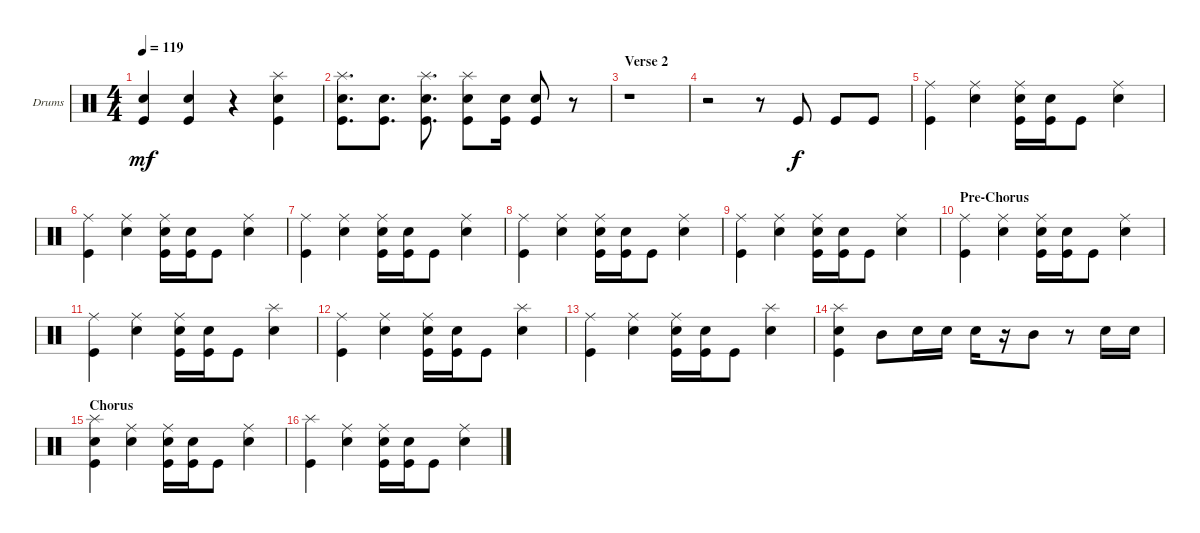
\defaultSystemsLayout 4
\bracketExtendMode groupsimilarinstruments
\firstSystemTrackNameOrientation horizontal
\otherSystemsTrackNameOrientation horizontal
\track ("Drumkit" "Drums") {instrument percussion}
\staff {score}
\articulation defaults
\ts (4 4)
\tempo 119
\clef neutral
\ks c
("Kick (hit)" "Snare (hit) 2").4{dy mf} ("Kick (hit)" "Snare (hit) 2").4 r.4 ("Kick (hit)" "Snare (hit) 2" "Splash (hit)").4 |
("Kick (hit)" "Splash (hit)" "Snare (hit) 2").8{d} ("Kick (hit)" "Snare (hit) 2").8{d} ("Kick (hit)" "Splash (hit)" "Snare (hit) 2").8{d} ("Kick (hit)" "Splash (hit)" "Snare (hit) 2").8 ("Kick (hit)" "Snare (hit) 2").16 ("Kick (hit)" "Snare (hit) 2").8 r.8 |
\section ("" "Verse 2")
r.1 |
r.2 r.8 "Kick (hit)".8{dy f} "Kick (hit)".8 "Kick (hit)".8 |
("Kick (hit)" "Ride (middle)").4 ("Snare (hit) 2" "Ride (middle)").4 ("Kick (hit)" "Snare (hit) 2" "Ride (middle)").16 ("Kick (hit)" "Snare (hit) 2").16 "Kick (hit)".8 ("Snare (hit) 2" "Ride (middle)").4 |
("Kick (hit)" "Ride (middle)").4 ("Snare (hit) 2" "Ride (middle)").4 ("Kick (hit)" "Snare (hit) 2" "Ride (middle)").16 ("Kick (hit)" "Snare (hit) 2").16 "Kick (hit)".8 ("Snare (hit) 2" "Ride (middle)").4 |
("Kick (hit)" "Ride (middle)").4 ("Snare (hit) 2" "Ride (middle)").4 ("Kick (hit)" "Snare (hit) 2" "Ride (middle)").16 ("Kick (hit)" "Snare (hit) 2").16 "Kick (hit)".8 ("Snare (hit) 2" "Ride (middle)").4 |
("Kick (hit)" "Ride (middle)").4 ("Snare (hit) 2" "Ride (middle)").4 ("Kick (hit)" "Snare (hit) 2" "Ride (middle)").16 ("Kick (hit)" "Snare (hit) 2").16 "Kick (hit)".8 ("Snare (hit) 2" "Ride (middle)").4 |
("Kick (hit)" "Ride (middle)").4 ("Snare (hit) 2" "Ride (middle)").4 ("Kick (hit)" "Snare (hit) 2" "Ride (middle)").16 ("Kick (hit)" "Snare (hit) 2").16 "Kick (hit)".8 ("Snare (hit) 2" "Ride (middle)").4 |
\section ("" "Pre-Chorus")
("Kick (hit)" "Ride (middle)").4 ("Snare (hit) 2" "Ride (middle)").4 ("Kick (hit)" "Snare (hit) 2" "Ride (middle)").16 ("Kick (hit)" "Snare (hit) 2").16 "Kick (hit)".8 ("Snare (hit) 2" "Ride (middle)").4 |
("Kick (hit)" "Ride (middle)").4 ("Snare (hit) 2" "Ride (middle)").4 ("Kick (hit)" "Snare (hit) 2" "Ride (middle)").16 ("Kick (hit)" "Snare (hit) 2").16 "Kick (hit)".8 ("Snare (hit) 2" "Splash (hit)").4 |
("Kick (hit)" "Ride (middle)").4 ("Snare (hit) 2" "Ride (middle)").4 ("Kick (hit)" "Snare (hit) 2" "Ride (middle)").16 ("Kick (hit)" "Snare (hit) 2").16 "Kick (hit)".8 ("Snare (hit) 2" "Splash (hit)").4 |
("Kick (hit)" "Ride (middle)").4 ("Snare (hit) 2" "Ride (middle)").4 ("Kick (hit)" "Snare (hit) 2" "Ride (middle)").16 ("Kick (hit)" "Snare (hit) 2").16 "Kick (hit)".8 ("Snare (hit) 2" "Splash (hit)").4 |
("Kick (hit)" "Snare (hit) 2" "Splash (hit)").4 "Mid Tom (hit)".8 "Snare (hit) 2".16 "Snare (hit) 2".16 "Snare (hit) 2".16 r.16 "Mid Tom (hit)".8 r.8 "Snare (hit) 2".16 "Snare (hit) 2".16 |
\section ("" "Chorus")
("Kick (hit)" "Splash (hit)" "Snare (hit) 2").4 ("Snare (hit) 2" "Ride (middle)").4 ("Kick (hit)" "Snare (hit) 2" "Ride (middle)").16 ("Kick (hit)" "Snare (hit) 2").16 "Kick (hit)".8 ("Snare (hit) 2" "Ride (middle)").4 |
("Kick (hit)" "Splash (hit)").4 ("Snare (hit) 2" "Ride (middle)").4 ("Kick (hit)" "Snare (hit) 2" "Ride (middle)").16 ("Kick (hit)" "Snare (hit) 2").16 "Kick (hit)".8 ("Snare (hit) 2" "Ride (middle)").4
